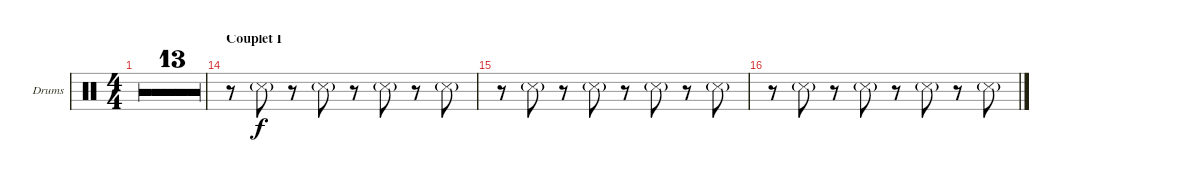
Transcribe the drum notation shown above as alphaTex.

\bracketExtendMode groupsimilarinstruments
\firstSystemTrackNameOrientation horizontal
\otherSystemsTrackNameOrientation horizontal
\track ("Clock" "Drums") {multiBarRest instrument percussion}
\staff {score}
\articulation defaults
\ts (4 4)
\tempo 116
\clef neutral
\ks c
|
|
|
|
|
|
|
|
|
|
|
|
|
\section ("" "Couplet I")
r.8 "Snare (side stick) 3"{g}.8 r.8 "Snare (side stick) 3"{g}.8 r.8 "Snare (side stick) 3"{g}.8 r.8 "Snare (side stick) 3"{g}.8 |
r.8 "Snare (side stick) 3"{g}.8 r.8 "Snare (side stick) 3"{g}.8 r.8 "Snare (side stick) 3"{g}.8 r.8 "Snare (side stick) 3"{g}.8 |
r.8 "Snare (side stick) 3"{g}.8 r.8 "Snare (side stick) 3"{g}.8 r.8 "Snare (side stick) 3"{g}.8 r.8 "Snare (side stick) 3"{g}.8
